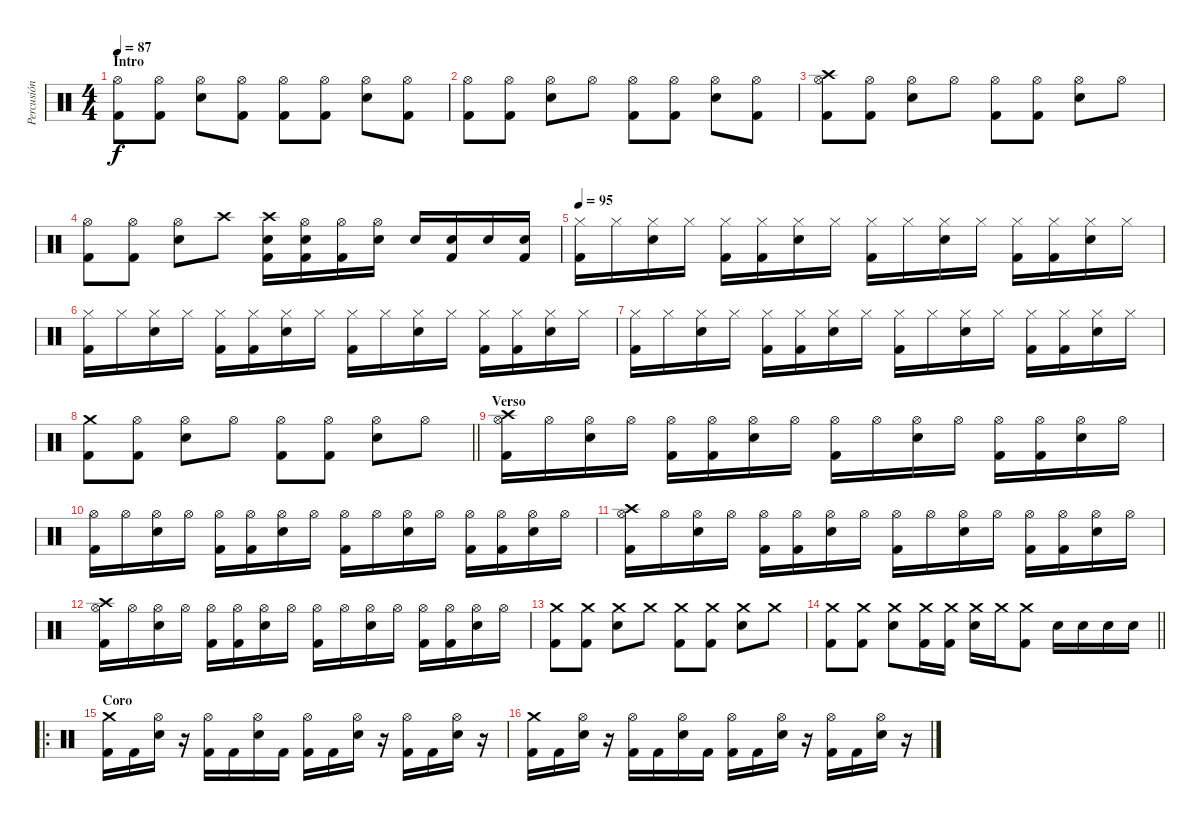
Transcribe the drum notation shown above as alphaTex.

\track ("Percusión" "Percusión") {instrument percussion}
\staff {score}
\articulation defaults
\ts (4 4)
\section ("" "Intro")
\tempo 87
\tempo 97
\tempo 87
\clef neutral
\ks c
("Hi-Hat (open)" "Kick (hit) 2").8{dy f} ("Hi-Hat (open)" "Kick (hit) 2").8 ("Hi-Hat (open)" "Electric Snare (hit)").8 ("Hi-Hat (open)" "Kick (hit) 2").8 ("Hi-Hat (open)" "Kick (hit) 2").8 ("Hi-Hat (open)" "Kick (hit) 2").8 ("Hi-Hat (open)" "Electric Snare (hit)").8 ("Hi-Hat (open)" "Kick (hit) 2").8 |
("Hi-Hat (open)" "Kick (hit) 2").8 ("Hi-Hat (open)" "Kick (hit) 2").8 ("Hi-Hat (open)" "Electric Snare (hit)").8 "Hi-Hat (open)".8 ("Hi-Hat (open)" "Kick (hit) 2").8 ("Hi-Hat (open)" "Kick (hit) 2").8 ("Hi-Hat (open)" "Electric Snare (hit)").8 ("Hi-Hat (open)" "Kick (hit) 2").8 |
("Crash high (hit)" "Hi-Hat (open)" "Kick (hit) 2").8 ("Hi-Hat (open)" "Kick (hit) 2").8 ("Hi-Hat (open)" "Electric Snare (hit)").8 "Hi-Hat (open)".8 ("Hi-Hat (open)" "Kick (hit) 2").8 ("Hi-Hat (open)" "Kick (hit) 2").8 ("Hi-Hat (open)" "Electric Snare (hit)").8 "Hi-Hat (open)".8 |
("Hi-Hat (open)" "Kick (hit) 2").8 ("Hi-Hat (open)" "Kick (hit) 2").8 ("Hi-Hat (open)" "Electric Snare (hit)").8 "Crash high (hit)".8 ("Crash high (hit)" "Electric Snare (hit)" "Kick (hit) 2").16 ("Hi-Hat (open)" "Electric Snare (hit)" "Kick (hit) 2").16 ("Hi-Hat (open)" "Kick (hit) 2").16 ("Hi-Hat (open)" "Electric Snare (hit)").16 "Electric Snare (hit)".16 ("Electric Snare (hit)" "Kick (hit) 2").16 "Electric Snare (hit)".16 ("Electric Snare (hit)" "Kick (hit) 2").16 |
\tempo 95
("Hi-Hat (closed)" "Kick (hit) 2").16 "Hi-Hat (closed)".16 ("Hi-Hat (closed)" "Electric Snare (hit)").16 "Hi-Hat (closed)".16 ("Hi-Hat (closed)" "Kick (hit) 2").16 ("Hi-Hat (closed)" "Kick (hit) 2").16 ("Hi-Hat (closed)" "Electric Snare (hit)").16 "Hi-Hat (closed)".16 ("Hi-Hat (closed)" "Kick (hit) 2").16 "Hi-Hat (closed)".16 ("Hi-Hat (closed)" "Electric Snare (hit)").16 "Hi-Hat (closed)".16 ("Hi-Hat (closed)" "Kick (hit) 2").16 ("Hi-Hat (closed)" "Kick (hit) 2").16 ("Hi-Hat (closed)" "Electric Snare (hit)").16 "Hi-Hat (closed)".16 |
("Hi-Hat (closed)" "Kick (hit) 2").16 "Hi-Hat (closed)".16 ("Hi-Hat (closed)" "Electric Snare (hit)").16 "Hi-Hat (closed)".16 ("Hi-Hat (closed)" "Kick (hit) 2").16 ("Hi-Hat (closed)" "Kick (hit) 2").16 ("Hi-Hat (closed)" "Electric Snare (hit)").16 "Hi-Hat (closed)".16 ("Hi-Hat (closed)" "Kick (hit) 2").16 "Hi-Hat (closed)".16 ("Hi-Hat (closed)" "Electric Snare (hit)").16 "Hi-Hat (closed)".16 ("Hi-Hat (closed)" "Kick (hit) 2").16 ("Hi-Hat (closed)" "Kick (hit) 2").16 ("Hi-Hat (closed)" "Electric Snare (hit)").16 "Hi-Hat (closed)".16 |
("Hi-Hat (closed)" "Kick (hit) 2").16 "Hi-Hat (closed)".16 ("Hi-Hat (closed)" "Electric Snare (hit)").16 "Hi-Hat (closed)".16 ("Hi-Hat (closed)" "Kick (hit) 2").16 ("Hi-Hat (closed)" "Kick (hit) 2").16 ("Hi-Hat (closed)" "Electric Snare (hit)").16 "Hi-Hat (closed)".16 ("Hi-Hat (closed)" "Kick (hit) 2").16 "Hi-Hat (closed)".16 ("Hi-Hat (closed)" "Electric Snare (hit)").16 "Hi-Hat (closed)".16 ("Hi-Hat (closed)" "Kick (hit) 2").16 ("Hi-Hat (closed)" "Kick (hit) 2").16 ("Hi-Hat (closed)" "Electric Snare (hit)").16 "Hi-Hat (closed)".16 |
\barLineRight lightlight
("Crash medium (hit)" "Kick (hit) 2").8 ("Hi-Hat (open)" "Kick (hit) 2").8 ("Hi-Hat (open)" "Electric Snare (hit)").8 "Hi-Hat (open)".8 ("Hi-Hat (open)" "Kick (hit) 2").8 ("Hi-Hat (open)" "Kick (hit) 2").8 ("Hi-Hat (open)" "Electric Snare (hit)").8 "Hi-Hat (open)".8 |
\section ("" "Verso")
("Hi-Hat (open)" "Crash high (hit)" "Kick (hit) 2").16 "Hi-Hat (open)".16 ("Hi-Hat (open)" "Electric Snare (hit)").16 "Hi-Hat (open)".16 ("Hi-Hat (open)" "Kick (hit) 2").16 ("Hi-Hat (open)" "Kick (hit) 2").16 ("Hi-Hat (open)" "Electric Snare (hit)").16 "Hi-Hat (open)".16 ("Hi-Hat (open)" "Kick (hit) 2").16 "Hi-Hat (open)".16 ("Hi-Hat (open)" "Electric Snare (hit)").16 "Hi-Hat (open)".16 ("Hi-Hat (open)" "Kick (hit) 2").16 ("Hi-Hat (open)" "Kick (hit) 2").16 ("Hi-Hat (open)" "Electric Snare (hit)").16 "Hi-Hat (open)".16 |
("Hi-Hat (open)" "Kick (hit) 2").16 "Hi-Hat (open)".16 ("Hi-Hat (open)" "Electric Snare (hit)").16 "Hi-Hat (open)".16 ("Hi-Hat (open)" "Kick (hit) 2").16 ("Hi-Hat (open)" "Kick (hit) 2").16 ("Hi-Hat (open)" "Electric Snare (hit)").16 "Hi-Hat (open)".16 ("Hi-Hat (open)" "Kick (hit) 2").16 "Hi-Hat (open)".16 ("Hi-Hat (open)" "Electric Snare (hit)").16 "Hi-Hat (open)".16 ("Hi-Hat (open)" "Kick (hit) 2").16 ("Hi-Hat (open)" "Kick (hit) 2").16 ("Hi-Hat (open)" "Electric Snare (hit)").16 "Hi-Hat (open)".16 |
("Hi-Hat (open)" "Crash high (hit)" "Kick (hit) 2").16 "Hi-Hat (open)".16 ("Hi-Hat (open)" "Electric Snare (hit)").16 "Hi-Hat (open)".16 ("Hi-Hat (open)" "Kick (hit) 2").16 ("Hi-Hat (open)" "Kick (hit) 2").16 ("Hi-Hat (open)" "Electric Snare (hit)").16 "Hi-Hat (open)".16 ("Hi-Hat (open)" "Kick (hit) 2").16 "Hi-Hat (open)".16 ("Hi-Hat (open)" "Electric Snare (hit)").16 "Hi-Hat (open)".16 ("Hi-Hat (open)" "Kick (hit) 2").16 ("Hi-Hat (open)" "Kick (hit) 2").16 ("Hi-Hat (open)" "Electric Snare (hit)").16 "Hi-Hat (open)".16 |
("Hi-Hat (open)" "Crash high (hit)" "Kick (hit) 2").16 "Hi-Hat (open)".16 ("Hi-Hat (open)" "Electric Snare (hit)").16 "Hi-Hat (open)".16 ("Hi-Hat (open)" "Kick (hit) 2").16 ("Hi-Hat (open)" "Kick (hit) 2").16 ("Hi-Hat (open)" "Electric Snare (hit)").16 "Hi-Hat (open)".16 ("Hi-Hat (open)" "Kick (hit) 2").16 "Hi-Hat (open)".16 ("Hi-Hat (open)" "Electric Snare (hit)").16 "Hi-Hat (open)".16 ("Hi-Hat (open)" "Kick (hit) 2").16 ("Hi-Hat (open)" "Kick (hit) 2").16 ("Hi-Hat (open)" "Electric Snare (hit)").16 "Hi-Hat (open)".16 |
("Crash medium (hit)" "Kick (hit) 2").8 ("Crash medium (hit)" "Kick (hit) 2").8 ("Crash medium (hit)" "Electric Snare (hit)").8 "Crash medium (hit)".8 ("Crash medium (hit)" "Kick (hit) 2").8 ("Crash medium (hit)" "Kick (hit) 2").8 ("Crash medium (hit)" "Electric Snare (hit)").8 "Crash medium (hit)".8 |
\barLineRight lightlight
("Crash medium (hit)" "Kick (hit) 2").8 ("Crash medium (hit)" "Kick (hit) 2").8 ("Crash medium (hit)" "Electric Snare (hit)").8 ("Crash medium (hit)" "Kick (hit) 2").16 ("Crash medium (hit)" "Kick (hit) 2").16 ("Crash medium (hit)" "Electric Snare (hit)").16 "Crash medium (hit)".16 ("Crash medium (hit)" "Kick (hit) 2").8 "Electric Snare (hit)".16 "Electric Snare (hit)".16 "Electric Snare (hit)".16 "Electric Snare (hit)".16 |
\ro
\section ("" "Coro")
("Crash medium (hit)" "Kick (hit) 2").16 "Kick (hit) 2".16 ("Hi-Hat (open)" "Electric Snare (hit)").16 r.16 ("Hi-Hat (open)" "Kick (hit) 2").16 "Kick (hit) 2".16 ("Hi-Hat (open)" "Electric Snare (hit)").16 "Kick (hit) 2".16 ("Hi-Hat (open)" "Kick (hit) 2").16 "Kick (hit) 2".16 ("Hi-Hat (open)" "Electric Snare (hit)").16 r.16 ("Hi-Hat (open)" "Kick (hit) 2").16 "Kick (hit) 2".16 ("Hi-Hat (open)" "Electric Snare (hit)").16 r.16 |
("Crash medium (hit)" "Kick (hit) 2").16 "Kick (hit) 2".16 ("Hi-Hat (open)" "Electric Snare (hit)").16 r.16 ("Hi-Hat (open)" "Kick (hit) 2").16 "Kick (hit) 2".16 ("Hi-Hat (open)" "Electric Snare (hit)").16 "Kick (hit) 2".16 ("Hi-Hat (open)" "Kick (hit) 2").16 "Kick (hit) 2".16 ("Hi-Hat (open)" "Electric Snare (hit)").16 r.16 ("Hi-Hat (open)" "Kick (hit) 2").16 "Kick (hit) 2".16 ("Hi-Hat (open)" "Electric Snare (hit)").16 r.16
